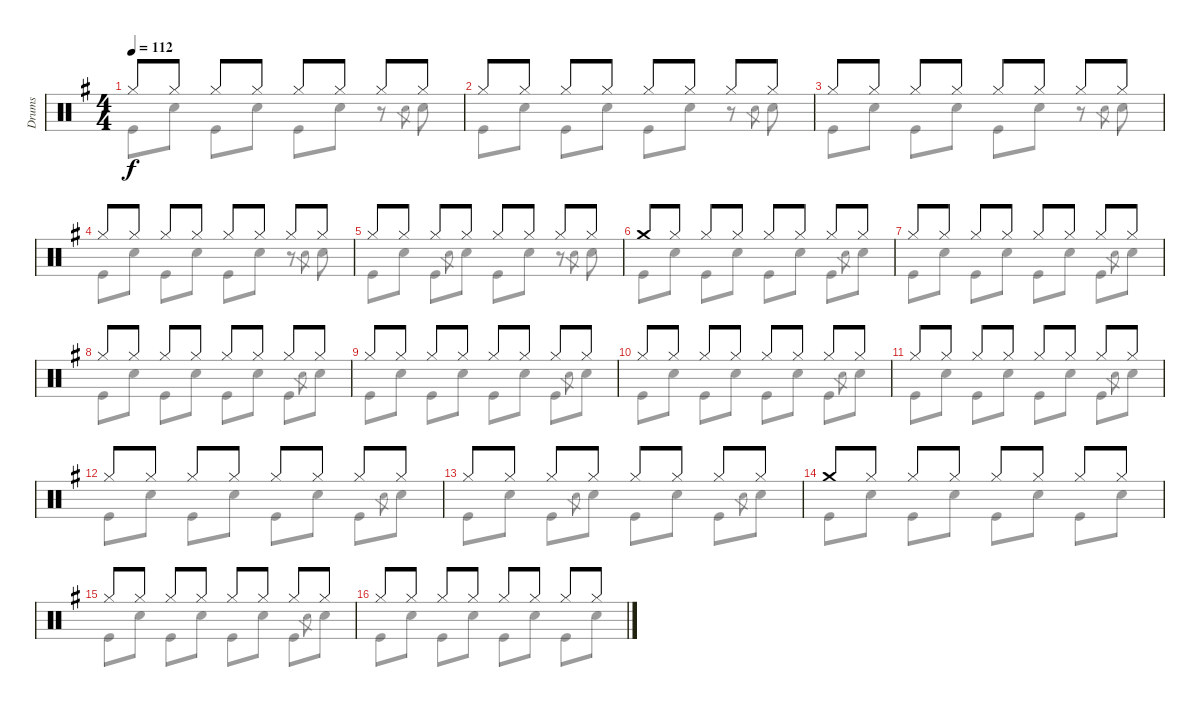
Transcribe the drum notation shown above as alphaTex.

\track ("Drums" "Drums") {instrument percussion}
\staff {score}
\articulation defaults
\voice
\ts (4 4)
\tempo 112
\clef neutral
\ks g "Hi-Hat (closed)".8{dy f} "Hi-Hat (closed)".8 "Hi-Hat (closed)".8 "Hi-Hat (closed)".8 "Hi-Hat (closed)".8 "Hi-Hat (closed)".8 "Hi-Hat (closed)".8 "Hi-Hat (closed)".8
|
"Hi-Hat (closed)".8 "Hi-Hat (closed)".8 "Hi-Hat (closed)".8 "Hi-Hat (closed)".8 "Hi-Hat (closed)".8 "Hi-Hat (closed)".8 "Hi-Hat (closed)".8 "Hi-Hat (closed)".8 |
"Hi-Hat (closed)".8 "Hi-Hat (closed)".8 "Hi-Hat (closed)".8 "Hi-Hat (closed)".8 "Hi-Hat (closed)".8 "Hi-Hat (closed)".8 "Hi-Hat (closed)".8 "Hi-Hat (closed)".8 |
"Hi-Hat (closed)".8 "Hi-Hat (closed)".8 "Hi-Hat (closed)".8 "Hi-Hat (closed)".8 "Hi-Hat (closed)".8 "Hi-Hat (closed)".8 "Hi-Hat (closed)".8 "Hi-Hat (closed)".8 |
"Hi-Hat (closed)".8 "Hi-Hat (closed)".8 "Hi-Hat (closed)".8 "Hi-Hat (closed)".8 "Hi-Hat (closed)".8 "Hi-Hat (closed)".8 "Hi-Hat (closed)".8 "Hi-Hat (closed)".8 |
"Crash medium (hit)".8 "Hi-Hat (closed)".8 "Hi-Hat (closed)".8 "Hi-Hat (closed)".8 "Hi-Hat (closed)".8 "Hi-Hat (closed)".8 "Hi-Hat (closed)".8 "Hi-Hat (closed)".8 |
"Hi-Hat (closed)".8 "Hi-Hat (closed)".8 "Hi-Hat (closed)".8 "Hi-Hat (closed)".8 "Hi-Hat (closed)".8 "Hi-Hat (closed)".8 "Hi-Hat (closed)".8 "Hi-Hat (closed)".8 |
"Hi-Hat (closed)".8 "Hi-Hat (closed)".8 "Hi-Hat (closed)".8 "Hi-Hat (closed)".8 "Hi-Hat (closed)".8 "Hi-Hat (closed)".8 "Hi-Hat (closed)".8 "Hi-Hat (closed)".8 |
"Hi-Hat (closed)".8 "Hi-Hat (closed)".8 "Hi-Hat (closed)".8 "Hi-Hat (closed)".8 "Hi-Hat (closed)".8 "Hi-Hat (closed)".8 "Hi-Hat (closed)".8 "Hi-Hat (closed)".8 |
"Hi-Hat (closed)".8 "Hi-Hat (closed)".8 "Hi-Hat (closed)".8 "Hi-Hat (closed)".8 "Hi-Hat (closed)".8 "Hi-Hat (closed)".8 "Hi-Hat (closed)".8 "Hi-Hat (closed)".8 |
"Hi-Hat (closed)".8 "Hi-Hat (closed)".8 "Hi-Hat (closed)".8 "Hi-Hat (closed)".8 "Hi-Hat (closed)".8 "Hi-Hat (closed)".8 "Hi-Hat (closed)".8 "Hi-Hat (closed)".8 |
"Hi-Hat (closed)".8 "Hi-Hat (closed)".8 "Hi-Hat (closed)".8 "Hi-Hat (closed)".8 "Hi-Hat (closed)".8 "Hi-Hat (closed)".8 "Hi-Hat (closed)".8 "Hi-Hat (closed)".8 |
"Hi-Hat (closed)".8 "Hi-Hat (closed)".8 "Hi-Hat (closed)".8 "Hi-Hat (closed)".8 "Hi-Hat (closed)".8 "Hi-Hat (closed)".8 "Hi-Hat (closed)".8 "Hi-Hat (closed)".8 |
"Crash medium (hit)".8 "Hi-Hat (closed)".8 "Hi-Hat (closed)".8 "Hi-Hat (closed)".8 "Hi-Hat (closed)".8 "Hi-Hat (closed)".8 "Hi-Hat (closed)".8 "Hi-Hat (closed)".8 |
"Hi-Hat (closed)".8 "Hi-Hat (closed)".8 "Hi-Hat (closed)".8 "Hi-Hat (closed)".8 "Hi-Hat (closed)".8 "Hi-Hat (closed)".8 "Hi-Hat (closed)".8 "Hi-Hat (closed)".8 |
"Hi-Hat (closed)".8 "Hi-Hat (closed)".8 "Hi-Hat (closed)".8 "Hi-Hat (closed)".8 "Hi-Hat (closed)".8 "Hi-Hat (closed)".8 "Hi-Hat (closed)".8 "Hi-Hat (closed)".8
\voice
\clef neutral
\ottava regular
\simile none
\ks g "Kick (hit)".8{dy f} "Snare (hit) 2".8 "Kick (hit)".8 "Snare (hit) 2".8 "Kick (hit)".8 "Snare (hit) 2".8
r.8 "Snare (hit) 2".8{gr} "Snare (hit) 2".8 |
"Kick (hit)".8 "Snare (hit) 2".8 "Kick (hit)".8 "Snare (hit) 2".8 "Kick (hit)".8 "Snare (hit) 2".8 r.8 "Snare (hit) 2".8{gr} "Snare (hit) 2".8 |
"Kick (hit)".8 "Snare (hit) 2".8 "Kick (hit)".8 "Snare (hit) 2".8 "Kick (hit)".8 "Snare (hit) 2".8 r.8 "Snare (hit) 2".8{gr} "Snare (hit) 2".8 |
"Kick (hit)".8 "Snare (hit) 2".8 "Kick (hit)".8 "Snare (hit) 2".8 "Kick (hit)".8 "Snare (hit) 2".8 r.8 "Snare (hit) 2".8{gr} "Snare (hit) 2".8 |
"Kick (hit)".8 "Snare (hit) 2".8 "Kick (hit)".8 "Snare (hit) 2".8{gr} "Snare (hit) 2".8 "Kick (hit)".8 "Snare (hit) 2".8 r.8 "Snare (hit) 2".8{gr} "Snare (hit) 2".8 |
"Kick (hit)".8 "Snare (hit) 2".8 "Kick (hit)".8 "Snare (hit) 2".8 "Kick (hit)".8 "Snare (hit) 2".8 "Kick (hit)".8 "Snare (hit) 2".8{gr} "Snare (hit) 2".8 |
"Kick (hit)".8 "Snare (hit) 2".8 "Kick (hit)".8 "Snare (hit) 2".8 "Kick (hit)".8 "Snare (hit) 2".8 "Kick (hit)".8 "Snare (hit) 2".8{gr} "Snare (hit) 2".8 |
"Kick (hit)".8 "Snare (hit) 2".8 "Kick (hit)".8 "Snare (hit) 2".8 "Kick (hit)".8 "Snare (hit) 2".8 "Kick (hit)".8 "Snare (hit) 2".8{gr} "Snare (hit) 2".8 |
"Kick (hit)".8 "Snare (hit) 2".8 "Kick (hit)".8 "Snare (hit) 2".8 "Kick (hit)".8 "Snare (hit) 2".8 "Kick (hit)".8 "Snare (hit) 2".8{gr} "Snare (hit) 2".8 |
"Kick (hit)".8 "Snare (hit) 2".8 "Kick (hit)".8 "Snare (hit) 2".8 "Kick (hit)".8 "Snare (hit) 2".8 "Kick (hit)".8 "Snare (hit) 2".8{gr} "Snare (hit) 2".8 |
"Kick (hit)".8 "Snare (hit) 2".8 "Kick (hit)".8 "Snare (hit) 2".8 "Kick (hit)".8 "Snare (hit) 2".8 "Kick (hit)".8 "Snare (hit) 2".8{gr} "Snare (hit) 2".8 |
"Kick (hit)".8 "Snare (hit) 2".8 "Kick (hit)".8 "Snare (hit) 2".8 "Kick (hit)".8 "Snare (hit) 2".8 "Kick (hit)".8 "Snare (hit) 2".8{gr} "Snare (hit) 2".8 |
"Kick (hit)".8 "Snare (hit) 2".8 "Kick (hit)".8 "Snare (hit) 2".8{gr} "Snare (hit) 2".8 "Kick (hit)".8 "Snare (hit) 2".8 "Kick (hit)".8 "Snare (hit) 2".8{gr} "Snare (hit) 2".8 |
"Kick (hit)".8 "Snare (hit) 2".8 "Kick (hit)".8 "Snare (hit) 2".8 "Kick (hit)".8 "Snare (hit) 2".8 "Kick (hit)".8 "Snare (hit) 2".8 |
"Kick (hit)".8 "Snare (hit) 2".8 "Kick (hit)".8 "Snare (hit) 2".8 "Kick (hit)".8 "Snare (hit) 2".8 "Kick (hit)".8 "Snare (hit) 2".8{gr} "Snare (hit) 2".8 |
"Kick (hit)".8 "Snare (hit) 2".8 "Kick (hit)".8 "Snare (hit) 2".8 "Kick (hit)".8 "Snare (hit) 2".8 "Kick (hit)".8 "Snare (hit) 2".8
